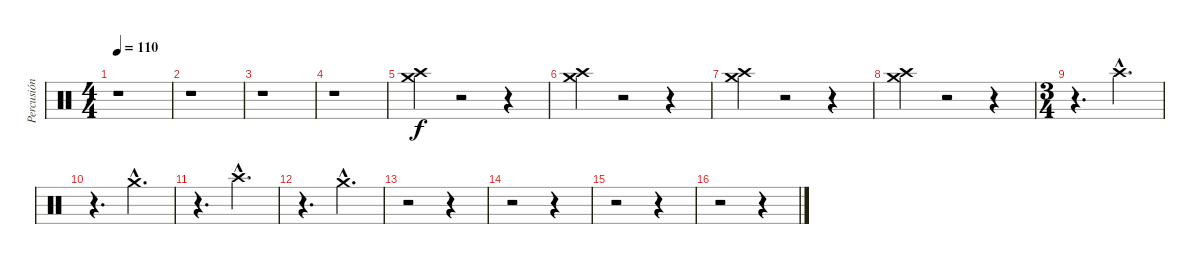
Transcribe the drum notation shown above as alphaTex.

\track ("Percusión" "Percusión") {instrument percussion}
\staff {score}
\articulation defaults
\ts (4 4)
\tempo 110
\clef neutral
\ks c
r.1{dy f} |
r.1 |
r.1 |
r.1 |
("Crash high (hit)" "Crash medium (hit)").4 r.2 r.4 |
("Crash high (hit)" "Crash medium (hit)").4 r.2 r.4 |
("Crash high (hit)" "Crash medium (hit)").4 r.2 r.4 |
("Crash high (hit)" "Crash medium (hit)").4 r.2 r.4 |
\ts (3 4)
r.4{d} "Crash high (hit)"{hac}.4{d} |
r.4{d} "Crash medium (hit)"{hac}.4{d} |
r.4{d} "Crash high (hit)"{hac}.4{d} |
r.4{d} "Crash medium (hit)"{hac}.4{d} |
r.2 r.4 |
r.2 r.4 |
r.2 r.4 |
r.2 r.4
